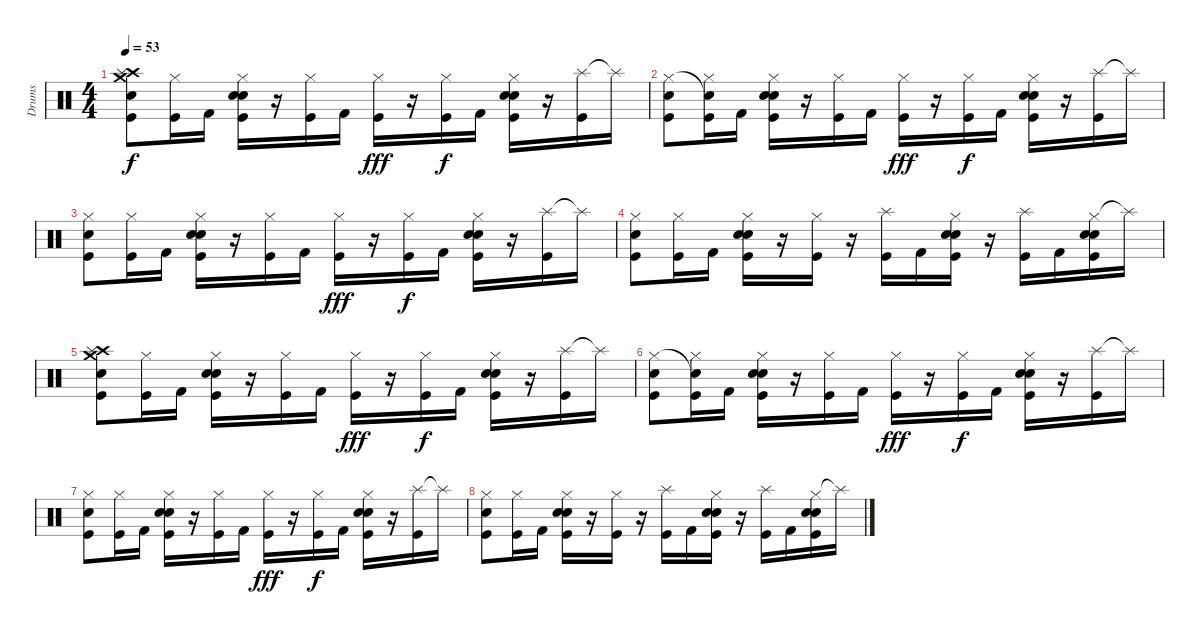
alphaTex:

\track ("Drums" "Drums") {instrument percussion}
\staff {score}
\articulation defaults
\ts (4 4)
\tempo 53
\clef neutral
\ks c
("Crash medium (hit)" "Crash high (hit)" "Splash (hit)" "Snare (hit) 2" "Kick (hit)").8{dy f} ("Hi-Hat (closed)" "Kick (hit)").16 "Kick (hit) 2".16 ("Hi-Hat (closed)" "Snare (hit) 2" "Electric Snare (hit)" "Kick (hit)").16 r.16 ("Hi-Hat (closed)" "Kick (hit)").16 "Kick (hit) 2".16 ("Hi-Hat (closed)" "Kick (hit)").16{dy fff} r.16 ("Hi-Hat (closed)" "Kick (hit)").16{dy f} "Kick (hit) 2".16 ("Hi-Hat (closed)" "Snare (hit) 2" "Electric Snare (hit)" "Kick (hit)").16 r.16 ("Splash (hit)" "Kick (hit)").16 "Splash (hit)"{t}.16 |
("Hi-Hat (closed)" "Electric Snare (hit)" "Kick (hit)").8 ("Snare (hit)"{t} "Hi-Hat (closed)" "Kick (hit)").16 "Kick (hit) 2".16 ("Hi-Hat (closed)" "Snare (hit) 2" "Electric Snare (hit)" "Kick (hit)").16 r.16 ("Hi-Hat (closed)" "Kick (hit)").16 "Kick (hit) 2".16 ("Hi-Hat (closed)" "Kick (hit)").16{dy fff} r.16 ("Hi-Hat (closed)" "Kick (hit)").16{dy f} "Kick (hit) 2".16 ("Hi-Hat (closed)" "Snare (hit) 2" "Electric Snare (hit)" "Kick (hit)").16 r.16 ("Splash (hit)" "Kick (hit)").16 "Splash (hit)"{t}.16 |
("Hi-Hat (closed)" "Electric Snare (hit)" "Kick (hit)").8 ("Hi-Hat (closed)" "Kick (hit)").16 "Kick (hit) 2".16 ("Hi-Hat (closed)" "Snare (hit) 2" "Electric Snare (hit)" "Kick (hit)").16 r.16 ("Hi-Hat (closed)" "Kick (hit)").16 "Kick (hit) 2".16 ("Hi-Hat (closed)" "Kick (hit)").16{dy fff} r.16 ("Hi-Hat (closed)" "Kick (hit)").16{dy f} "Kick (hit) 2".16 ("Hi-Hat (closed)" "Snare (hit) 2" "Electric Snare (hit)" "Kick (hit)").16 r.16 ("Splash (hit)" "Kick (hit)").16 "Splash (hit)"{t}.16 |
("Hi-Hat (closed)" "Electric Snare (hit)" "Kick (hit)").8 ("Hi-Hat (closed)" "Kick (hit)").16 "Kick (hit) 2".16 ("Hi-Hat (closed)" "Snare (hit) 2" "Electric Snare (hit)" "Kick (hit)").16 r.16 ("Hi-Hat (closed)" "Kick (hit)").16 r.16 ("Splash (hit)" "Kick (hit)").16 "Kick (hit) 2".16 ("Hi-Hat (closed)" "Snare (hit) 2" "Electric Snare (hit)" "Kick (hit)").16 r.16 ("Splash (hit)" "Kick (hit)").16 "Kick (hit) 2".16 ("Hi-Hat (closed)" "Snare (hit) 2" "Electric Snare (hit)" "Kick (hit)").16 "Splash (hit)"{t}.16 |
("Crash medium (hit)" "Crash high (hit)" "Splash (hit)" "Snare (hit) 2" "Kick (hit)").8 ("Hi-Hat (closed)" "Kick (hit)").16 "Kick (hit) 2".16 ("Hi-Hat (closed)" "Snare (hit) 2" "Electric Snare (hit)" "Kick (hit)").16 r.16 ("Hi-Hat (closed)" "Kick (hit)").16 "Kick (hit) 2".16 ("Hi-Hat (closed)" "Kick (hit)").16{dy fff} r.16 ("Hi-Hat (closed)" "Kick (hit)").16{dy f} "Kick (hit) 2".16 ("Hi-Hat (closed)" "Snare (hit) 2" "Electric Snare (hit)" "Kick (hit)").16 r.16 ("Splash (hit)" "Kick (hit)").16 "Splash (hit)"{t}.16 |
("Hi-Hat (closed)" "Electric Snare (hit)" "Kick (hit)").8 ("Snare (hit)"{t} "Hi-Hat (closed)" "Kick (hit)").16 "Kick (hit) 2".16 ("Hi-Hat (closed)" "Snare (hit) 2" "Electric Snare (hit)" "Kick (hit)").16 r.16 ("Hi-Hat (closed)" "Kick (hit)").16 "Kick (hit) 2".16 ("Hi-Hat (closed)" "Kick (hit)").16{dy fff} r.16 ("Hi-Hat (closed)" "Kick (hit)").16{dy f} "Kick (hit) 2".16 ("Hi-Hat (closed)" "Snare (hit) 2" "Electric Snare (hit)" "Kick (hit)").16 r.16 ("Splash (hit)" "Kick (hit)").16 "Splash (hit)"{t}.16 |
("Hi-Hat (closed)" "Electric Snare (hit)" "Kick (hit)").8 ("Hi-Hat (closed)" "Kick (hit)").16 "Kick (hit) 2".16 ("Hi-Hat (closed)" "Snare (hit) 2" "Electric Snare (hit)" "Kick (hit)").16 r.16 ("Hi-Hat (closed)" "Kick (hit)").16 "Kick (hit) 2".16 ("Hi-Hat (closed)" "Kick (hit)").16{dy fff} r.16 ("Hi-Hat (closed)" "Kick (hit)").16{dy f} "Kick (hit) 2".16 ("Hi-Hat (closed)" "Snare (hit) 2" "Electric Snare (hit)" "Kick (hit)").16 r.16 ("Splash (hit)" "Kick (hit)").16 "Splash (hit)"{t}.16 |
("Hi-Hat (closed)" "Electric Snare (hit)" "Kick (hit)").8{volume 0} ("Hi-Hat (closed)" "Kick (hit)").16 "Kick (hit) 2".16 ("Hi-Hat (closed)" "Snare (hit) 2" "Electric Snare (hit)" "Kick (hit)").16 r.16 ("Hi-Hat (closed)" "Kick (hit)").16 r.16 ("Splash (hit)" "Kick (hit)").16 "Kick (hit) 2".16 ("Hi-Hat (closed)" "Snare (hit) 2" "Electric Snare (hit)" "Kick (hit)").16 r.16 ("Splash (hit)" "Kick (hit)").16 "Kick (hit) 2".16 ("Hi-Hat (closed)" "Snare (hit) 2" "Electric Snare (hit)" "Kick (hit)").16 "Splash (hit)"{t}.16
